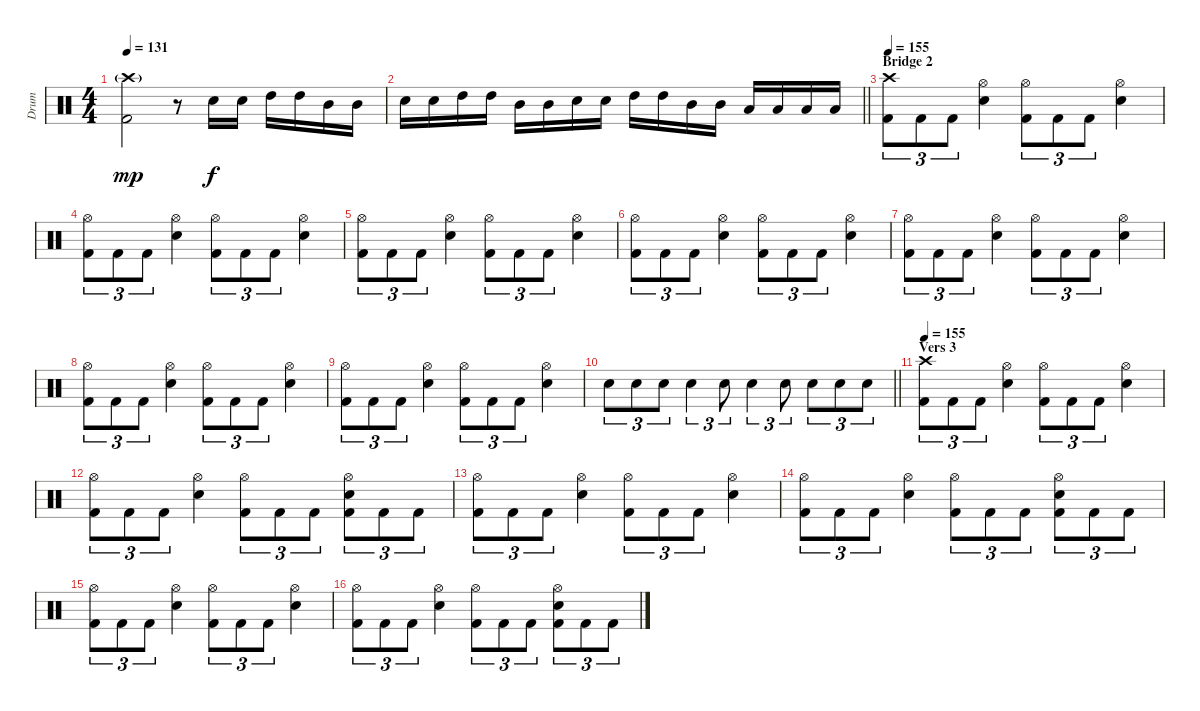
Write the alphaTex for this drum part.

\track ("Drum" "Drum") {instrument percussion}
\staff {score}
\articulation defaults
\ts (4 4)
\tempo 131
\clef neutral
\ks c
("Crash high (hit)"{g} "Kick (hit) 2").2{dy mp} r.8 "Electric Snare (hit)".16{dy f} "Electric Snare (hit)".16 "High Tom (hit)".16 "High Tom (hit)".16 "Mid Tom (hit)".16 "Mid Tom (hit)".16 |
\barLineRight lightlight "Electric Snare (hit)".16 "Electric Snare (hit)".16 "High Tom (hit)".16 "High Tom (hit)".16 "Mid Tom (hit)".16 "Mid Tom (hit)".16 "Electric Snare (hit)".16 "Electric Snare (hit)".16 "High Tom (hit)".16 "High Tom (hit)".16 "Mid Tom (hit)".16 "Mid Tom (hit)".16 "Low Tom (hit)".16 "Low Tom (hit)".16 "Low Tom (hit)".16 "Low Tom (hit)".16
|
\section ("" "Bridge 2")
\tempo 155
("Crash high (hit)" "Kick (hit) 2").8{tu (3 2)} "Kick (hit) 2".8{tu (3 2)} "Kick (hit) 2".8{tu (3 2)} ("Hi-Hat (open)" "Electric Snare (hit)").4 ("Hi-Hat (open)" "Kick (hit) 2").8{tu (3 2)} "Kick (hit) 2".8{tu (3 2)} "Kick (hit) 2".8{tu (3 2)} ("Hi-Hat (open)" "Electric Snare (hit)").4 |
("Hi-Hat (open)" "Kick (hit) 2").8{tu (3 2)} "Kick (hit) 2".8{tu (3 2)} "Kick (hit) 2".8{tu (3 2)} ("Hi-Hat (open)" "Electric Snare (hit)").4 ("Hi-Hat (open)" "Kick (hit) 2").8{tu (3 2)} "Kick (hit) 2".8{tu (3 2)} "Kick (hit) 2".8{tu (3 2)} ("Hi-Hat (open)" "Electric Snare (hit)").4 |
("Hi-Hat (open)" "Kick (hit) 2").8{tu (3 2)} "Kick (hit) 2".8{tu (3 2)} "Kick (hit) 2".8{tu (3 2)} ("Hi-Hat (open)" "Electric Snare (hit)").4 ("Hi-Hat (open)" "Kick (hit) 2").8{tu (3 2)} "Kick (hit) 2".8{tu (3 2)} "Kick (hit) 2".8{tu (3 2)} ("Hi-Hat (open)" "Electric Snare (hit)").4 |
("Hi-Hat (open)" "Kick (hit) 2").8{tu (3 2)} "Kick (hit) 2".8{tu (3 2)} "Kick (hit) 2".8{tu (3 2)} ("Hi-Hat (open)" "Electric Snare (hit)").4 ("Hi-Hat (open)" "Kick (hit) 2").8{tu (3 2)} "Kick (hit) 2".8{tu (3 2)} "Kick (hit) 2".8{tu (3 2)} ("Hi-Hat (open)" "Electric Snare (hit)").4 |
("Hi-Hat (open)" "Kick (hit) 2").8{tu (3 2)} "Kick (hit) 2".8{tu (3 2)} "Kick (hit) 2".8{tu (3 2)} ("Hi-Hat (open)" "Electric Snare (hit)").4 ("Hi-Hat (open)" "Kick (hit) 2").8{tu (3 2)} "Kick (hit) 2".8{tu (3 2)} "Kick (hit) 2".8{tu (3 2)} ("Hi-Hat (open)" "Electric Snare (hit)").4 |
("Hi-Hat (open)" "Kick (hit) 2").8{tu (3 2)} "Kick (hit) 2".8{tu (3 2)} "Kick (hit) 2".8{tu (3 2)} ("Hi-Hat (open)" "Electric Snare (hit)").4 ("Hi-Hat (open)" "Kick (hit) 2").8{tu (3 2)} "Kick (hit) 2".8{tu (3 2)} "Kick (hit) 2".8{tu (3 2)} ("Hi-Hat (open)" "Electric Snare (hit)").4 |
("Hi-Hat (open)" "Kick (hit) 2").8{tu (3 2)} "Kick (hit) 2".8{tu (3 2)} "Kick (hit) 2".8{tu (3 2)} ("Hi-Hat (open)" "Electric Snare (hit)").4 ("Hi-Hat (open)" "Kick (hit) 2").8{tu (3 2)} "Kick (hit) 2".8{tu (3 2)} "Kick (hit) 2".8{tu (3 2)} ("Hi-Hat (open)" "Electric Snare (hit)").4 |
\barLineRight lightlight "Electric Snare (hit)".8{tu (3 2)} "Electric Snare (hit)".8{tu (3 2)} "Electric Snare (hit)".8{tu (3 2)} "Electric Snare (hit)".4{tu (3 2)} "Electric Snare (hit)".8{tu (3 2)} "Electric Snare (hit)".4{tu (3 2)} "Electric Snare (hit)".8{tu (3 2)} "Electric Snare (hit)".8{tu (3 2)} "Electric Snare (hit)".8{tu (3 2)} "Electric Snare (hit)".8{tu (3 2)}
|
\section ("" "Vers 3")
\tempo 155
("Crash high (hit)" "Kick (hit) 2").8{tu (3 2)} "Kick (hit) 2".8{tu (3 2)} "Kick (hit) 2".8{tu (3 2)} ("Hi-Hat (open)" "Electric Snare (hit)").4 ("Hi-Hat (open)" "Kick (hit) 2").8{tu (3 2)} "Kick (hit) 2".8{tu (3 2)} "Kick (hit) 2".8{tu (3 2)} ("Hi-Hat (open)" "Electric Snare (hit)").4 |
("Hi-Hat (open)" "Kick (hit) 2").8{tu (3 2)} "Kick (hit) 2".8{tu (3 2)} "Kick (hit) 2".8{tu (3 2)} ("Hi-Hat (open)" "Electric Snare (hit)").4 ("Hi-Hat (open)" "Kick (hit) 2").8{tu (3 2)} "Kick (hit) 2".8{tu (3 2)} "Kick (hit) 2".8{tu (3 2)} ("Hi-Hat (open)" "Electric Snare (hit)" "Kick (hit) 2").8{tu (3 2)} "Kick (hit) 2".8{tu (3 2)} "Kick (hit) 2".8{tu (3 2)} |
("Hi-Hat (open)" "Kick (hit) 2").8{tu (3 2)} "Kick (hit) 2".8{tu (3 2)} "Kick (hit) 2".8{tu (3 2)} ("Hi-Hat (open)" "Electric Snare (hit)").4 ("Hi-Hat (open)" "Kick (hit) 2").8{tu (3 2)} "Kick (hit) 2".8{tu (3 2)} "Kick (hit) 2".8{tu (3 2)} ("Hi-Hat (open)" "Electric Snare (hit)").4 |
("Hi-Hat (open)" "Kick (hit) 2").8{tu (3 2)} "Kick (hit) 2".8{tu (3 2)} "Kick (hit) 2".8{tu (3 2)} ("Hi-Hat (open)" "Electric Snare (hit)").4 ("Hi-Hat (open)" "Kick (hit) 2").8{tu (3 2)} "Kick (hit) 2".8{tu (3 2)} "Kick (hit) 2".8{tu (3 2)} ("Hi-Hat (open)" "Electric Snare (hit)" "Kick (hit) 2").8{tu (3 2)} "Kick (hit) 2".8{tu (3 2)} "Kick (hit) 2".8{tu (3 2)} |
("Hi-Hat (open)" "Kick (hit) 2").8{tu (3 2)} "Kick (hit) 2".8{tu (3 2)} "Kick (hit) 2".8{tu (3 2)} ("Hi-Hat (open)" "Electric Snare (hit)").4 ("Hi-Hat (open)" "Kick (hit) 2").8{tu (3 2)} "Kick (hit) 2".8{tu (3 2)} "Kick (hit) 2".8{tu (3 2)} ("Hi-Hat (open)" "Electric Snare (hit)").4 |
("Hi-Hat (open)" "Kick (hit) 2").8{tu (3 2)} "Kick (hit) 2".8{tu (3 2)} "Kick (hit) 2".8{tu (3 2)} ("Hi-Hat (open)" "Electric Snare (hit)").4 ("Hi-Hat (open)" "Kick (hit) 2").8{tu (3 2)} "Kick (hit) 2".8{tu (3 2)} "Kick (hit) 2".8{tu (3 2)} ("Hi-Hat (open)" "Electric Snare (hit)" "Kick (hit) 2").8{tu (3 2)} "Kick (hit) 2".8{tu (3 2)} "Kick (hit) 2".8{tu (3 2)}
